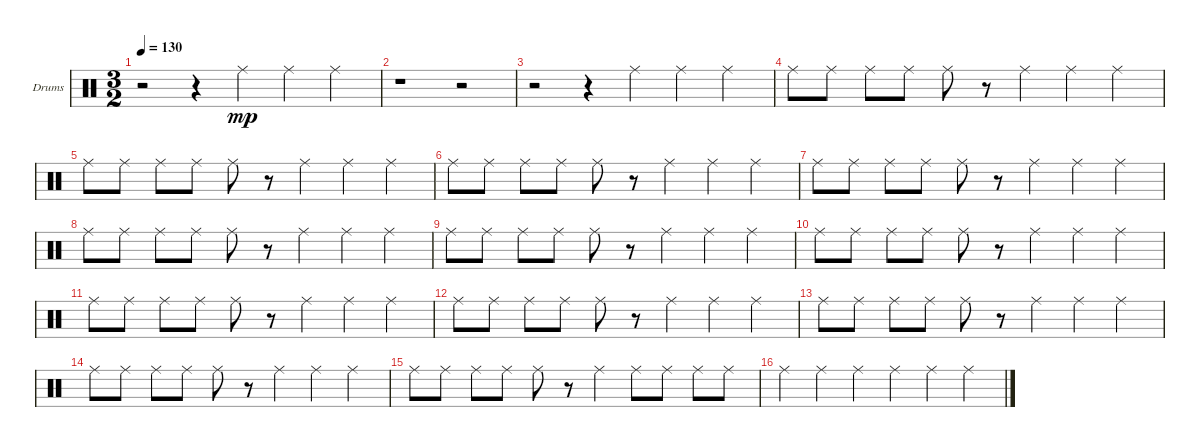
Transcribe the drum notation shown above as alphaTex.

\bracketExtendMode groupsimilarinstruments
\firstSystemTrackNameOrientation horizontal
\otherSystemsTrackNameOrientation horizontal
\track ("Барабаны" "Drums") {instrument percussion}
\staff {score}
\articulation defaults
\ts (3 2)
\tempo 130
\clef neutral
\ks c
r.2{dy mp} r.4 "Ride (middle)".4 "Ride (middle)".4 "Ride (middle)".4 |
r.1 r.2 |
r.2 r.4 "Ride (middle)".4 "Ride (middle)".4 "Ride (middle)".4 |
"Ride (middle)".8 "Ride (middle)".8 "Ride (middle)".8 "Ride (middle)".8 "Ride (middle)".8 r.8 "Ride (middle)".4 "Ride (middle)".4 "Ride (middle)".4 |
"Ride (middle)".8 "Ride (middle)".8 "Ride (middle)".8 "Ride (middle)".8 "Ride (middle)".8 r.8 "Ride (middle)".4 "Ride (middle)".4 "Ride (middle)".4 |
"Ride (middle)".8 "Ride (middle)".8 "Ride (middle)".8 "Ride (middle)".8 "Ride (middle)".8 r.8 "Ride (middle)".4 "Ride (middle)".4 "Ride (middle)".4 |
"Ride (middle)".8 "Ride (middle)".8 "Ride (middle)".8 "Ride (middle)".8 "Ride (middle)".8 r.8 "Ride (middle)".4 "Ride (middle)".4 "Ride (middle)".4 |
"Ride (middle)".8 "Ride (middle)".8 "Ride (middle)".8 "Ride (middle)".8 "Ride (middle)".8 r.8 "Ride (middle)".4 "Ride (middle)".4 "Ride (middle)".4 |
"Ride (middle)".8 "Ride (middle)".8 "Ride (middle)".8 "Ride (middle)".8 "Ride (middle)".8 r.8 "Ride (middle)".4 "Ride (middle)".4 "Ride (middle)".4 |
"Ride (middle)".8 "Ride (middle)".8 "Ride (middle)".8 "Ride (middle)".8 "Ride (middle)".8 r.8 "Ride (middle)".4 "Ride (middle)".4 "Ride (middle)".4 |
"Ride (middle)".8 "Ride (middle)".8 "Ride (middle)".8 "Ride (middle)".8 "Ride (middle)".8 r.8 "Ride (middle)".4 "Ride (middle)".4 "Ride (middle)".4 |
"Ride (middle)".8 "Ride (middle)".8 "Ride (middle)".8 "Ride (middle)".8 "Ride (middle)".8 r.8 "Ride (middle)".4 "Ride (middle)".4 "Ride (middle)".4 |
"Ride (middle)".8 "Ride (middle)".8 "Ride (middle)".8 "Ride (middle)".8 "Ride (middle)".8 r.8 "Ride (middle)".4 "Ride (middle)".4 "Ride (middle)".4 |
"Ride (middle)".8 "Ride (middle)".8 "Ride (middle)".8 "Ride (middle)".8 "Ride (middle)".8 r.8 "Ride (middle)".4 "Ride (middle)".4 "Ride (middle)".4 |
"Ride (middle)".8 "Ride (middle)".8 "Ride (middle)".8 "Ride (middle)".8 "Ride (middle)".8 r.8 "Ride (middle)".4 "Ride (middle)".8 "Ride (middle)".8 "Ride (middle)".8 "Ride (middle)".8 |
"Ride (middle)".4 "Ride (middle)".4 "Ride (middle)".4 "Ride (middle)".4 "Ride (middle)".4 "Ride (middle)".4
